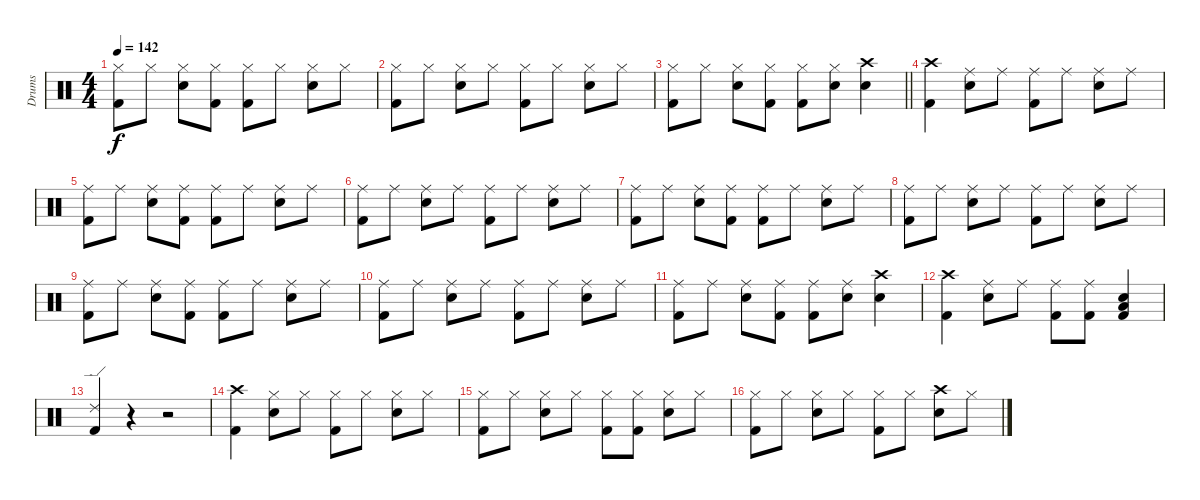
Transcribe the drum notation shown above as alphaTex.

\track ("Drums" "Drums") {instrument percussion}
\staff {score}
\articulation defaults
\ts (4 4)
\tempo 142
\clef neutral
\ks c
("Hi-Hat (closed)" "Kick (hit) 2").8{dy f} "Hi-Hat (closed)".8 ("Hi-Hat (closed)" "Snare (hit) 2").8 ("Hi-Hat (closed)" "Kick (hit) 2").8 ("Hi-Hat (closed)" "Kick (hit) 2").8 "Hi-Hat (closed)".8 ("Hi-Hat (closed)" "Snare (hit) 2").8 "Hi-Hat (closed)".8 |
("Hi-Hat (closed)" "Kick (hit) 2").8 "Hi-Hat (closed)".8 ("Hi-Hat (closed)" "Snare (hit) 2").8 "Hi-Hat (closed)".8 ("Hi-Hat (closed)" "Kick (hit) 2").8 "Hi-Hat (closed)".8 ("Hi-Hat (closed)" "Snare (hit) 2").8 "Hi-Hat (closed)".8 |
\barLineRight lightlight
("Hi-Hat (closed)" "Kick (hit) 2").8 "Hi-Hat (closed)".8 ("Hi-Hat (closed)" "Snare (hit) 2").8 ("Hi-Hat (closed)" "Kick (hit) 2").8 ("Hi-Hat (closed)" "Kick (hit) 2").8 ("Hi-Hat (closed)" "Snare (hit) 2").8 ("Crash high (hit)" "Snare (hit) 2").4 |
("Crash high (hit)" "Kick (hit) 2").4 ("Ride (middle)" "Snare (hit) 2").8 "Ride (middle)".8 ("Ride (middle)" "Kick (hit) 2").8 "Ride (middle)".8 ("Ride (middle)" "Snare (hit) 2").8 "Ride (middle)".8 |
("Ride (middle)" "Kick (hit) 2").8 "Ride (middle)".8 ("Ride (middle)" "Snare (hit) 2").8 ("Ride (middle)" "Kick (hit) 2").8 ("Ride (middle)" "Kick (hit) 2").8 "Ride (middle)".8 ("Ride (middle)" "Snare (hit) 2").8 "Ride (middle)".8 |
("Ride (middle)" "Kick (hit) 2").8 "Ride (middle)".8 ("Ride (middle)" "Snare (hit) 2").8 "Ride (middle)".8 ("Ride (middle)" "Kick (hit) 2").8 "Ride (middle)".8 ("Ride (middle)" "Snare (hit) 2").8 "Ride (middle)".8 |
("Ride (middle)" "Kick (hit) 2").8 "Ride (middle)".8 ("Ride (middle)" "Snare (hit) 2").8 ("Ride (middle)" "Kick (hit) 2").8 ("Ride (middle)" "Kick (hit) 2").8 "Ride (middle)".8 ("Ride (middle)" "Snare (hit) 2").8 "Ride (middle)".8 |
("Ride (middle)" "Kick (hit) 2").8 "Ride (middle)".8 ("Ride (middle)" "Snare (hit) 2").8 "Ride (middle)".8 ("Ride (middle)" "Kick (hit) 2").8 "Ride (middle)".8 ("Ride (middle)" "Snare (hit) 2").8 "Ride (middle)".8 |
("Ride (middle)" "Kick (hit) 2").8 "Ride (middle)".8 ("Ride (middle)" "Snare (hit) 2").8 ("Ride (middle)" "Kick (hit) 2").8 ("Ride (middle)" "Kick (hit) 2").8 "Ride (middle)".8 ("Ride (middle)" "Snare (hit) 2").8 "Ride (middle)".8 |
("Ride (middle)" "Kick (hit) 2").8 "Ride (middle)".8 ("Ride (middle)" "Snare (hit) 2").8 "Ride (middle)".8 ("Ride (middle)" "Kick (hit) 2").8 "Ride (middle)".8 ("Ride (middle)" "Snare (hit) 2").8 "Ride (middle)".8 |
("Ride (middle)" "Kick (hit) 2").8 "Ride (middle)".8 ("Ride (middle)" "Snare (hit) 2").8 ("Ride (middle)" "Kick (hit) 2").8 ("Ride (middle)" "Kick (hit) 2").8 ("Ride (middle)" "Snare (hit) 2").8 ("Crash high (hit)" "Snare (hit) 2").4 |
("Crash high (hit)" "Kick (hit) 2").4 ("Ride (middle)" "Snare (hit) 2").8 "Ride (middle)".8 ("Ride (middle)" "Kick (hit) 2").8 ("Ride (middle)" "Kick (hit) 2").8 ("Snare (hit) 2" "Low Tom (hit)" "Kick (hit) 2").4 |
("Ride (edge) 2" "Kick (hit) 2").4 r.4 r.2 |
("Crash high (hit)" "Kick (hit) 2").4 ("Hi-Hat (closed)" "Snare (hit) 2").8 "Hi-Hat (closed)".8 ("Hi-Hat (closed)" "Kick (hit) 2").8 "Hi-Hat (closed)".8 ("Hi-Hat (closed)" "Snare (hit) 2").8 "Hi-Hat (closed)".8 |
("Hi-Hat (closed)" "Kick (hit) 2").8 "Hi-Hat (closed)".8 ("Hi-Hat (closed)" "Snare (hit) 2").8 "Hi-Hat (closed)".8 ("Hi-Hat (closed)" "Kick (hit) 2").8 ("Hi-Hat (closed)" "Kick (hit) 2").8 ("Hi-Hat (closed)" "Snare (hit) 2").8 "Hi-Hat (closed)".8 |
("Hi-Hat (closed)" "Kick (hit) 2").8 "Hi-Hat (closed)".8 ("Hi-Hat (closed)" "Snare (hit) 2").8 "Hi-Hat (closed)".8 ("Hi-Hat (closed)" "Kick (hit) 2").8 "Hi-Hat (closed)".8 ("Crash high (hit)" "Snare (hit) 2").8 "Hi-Hat (closed)".8
